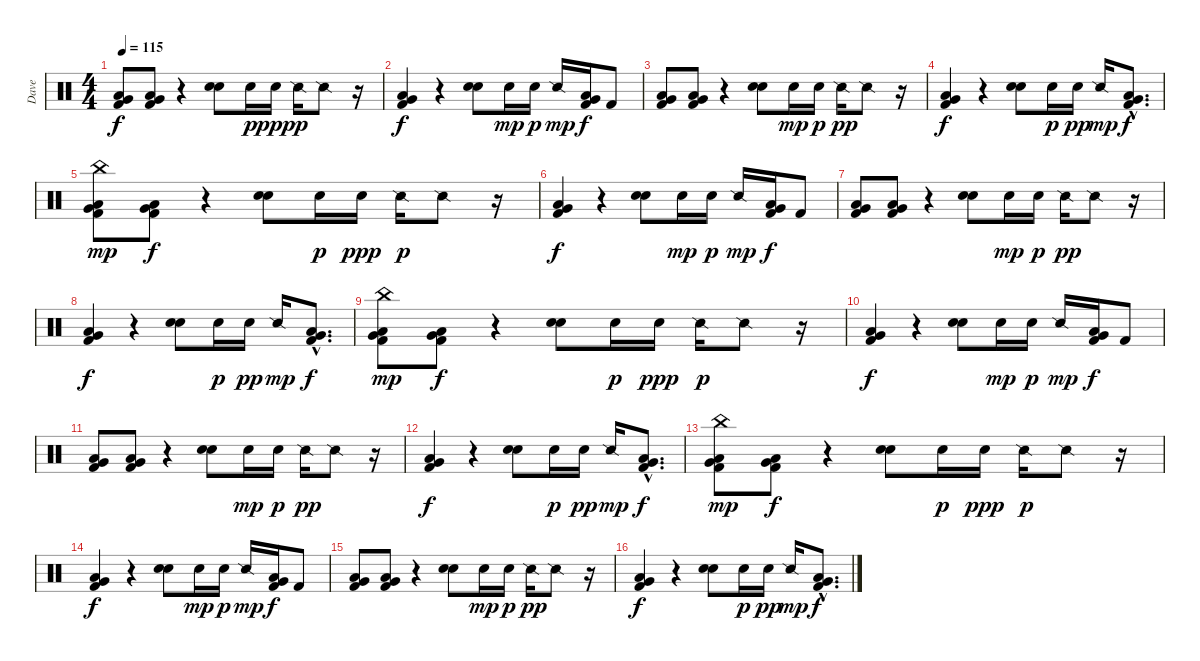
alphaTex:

\track ("Dave" "Dave") {instrument percussion}
\staff {score}
\articulation defaults
\ts (4 4)
\tempo 115
\clef neutral
\ks c
("Very Low Tom (hit)" "Low Floor Tom (hit)" "Kick (hit) 2").8{dy f} ("Very Low Tom (hit)" "Low Floor Tom (hit)" "Kick (hit) 2").8 r.4 ("Hand Clap (hit)" "Electric Snare (hit)").8 "Hand Clap (hit)".16{dy p} "Hand Clap (hit)".16{dy ppp} "Snare (side stick) 2".16{dy p} "Snare (side stick) 2".8 r.16 |
("Very Low Tom (hit)" "Low Floor Tom (hit)" "Kick (hit) 2").4{dy f} r.4 ("Hand Clap (hit)" "Electric Snare (hit)").8 "Hand Clap (hit)".16{dy mp} "Hand Clap (hit)".16{dy p} "Snare (side stick) 2".16{dy mp} ("Very Low Tom (hit)" "Low Floor Tom (hit)" "Kick (hit) 2").16{dy f} "Kick (hit) 2".8 |
("Very Low Tom (hit)" "Low Floor Tom (hit)" "Kick (hit) 2").8 ("Very Low Tom (hit)" "Low Floor Tom (hit)" "Kick (hit) 2").8 r.4 ("Hand Clap (hit)" "Electric Snare (hit)").8 "Hand Clap (hit)".16{dy mp} "Hand Clap (hit)".16{dy p} "Snare (side stick) 2".16{dy pp} "Snare (side stick) 2".8 r.16 |
("Very Low Tom (hit)" "Low Floor Tom (hit)" "Kick (hit) 2").4{dy f} r.4 ("Hand Clap (hit)" "Electric Snare (hit)").8 "Hand Clap (hit)".16{dy p} "Hand Clap (hit)".16{dy pp} "Snare (side stick) 2".16{dy mp} ("Very Low Tom (hit)"{hac} "Low Floor Tom (hit)"{hac} "Kick (hit) 2"{hac}).8{d dy f} |
("China (hit)" "Very Low Tom (hit)" "Low Floor Tom (hit)" "Kick (hit) 2").8{dy mp} ("Very Low Tom (hit)" "Low Floor Tom (hit)" "Kick (hit) 2").8{dy f} r.4 ("Hand Clap (hit)" "Electric Snare (hit)").8 "Hand Clap (hit)".16{dy p} "Hand Clap (hit)".16{dy ppp} "Snare (side stick) 2".16{dy p} "Snare (side stick) 2".8 r.16 |
("Very Low Tom (hit)" "Low Floor Tom (hit)" "Kick (hit) 2").4{dy f} r.4 ("Hand Clap (hit)" "Electric Snare (hit)").8 "Hand Clap (hit)".16{dy mp} "Hand Clap (hit)".16{dy p} "Snare (side stick) 2".16{dy mp} ("Very Low Tom (hit)" "Low Floor Tom (hit)" "Kick (hit) 2").16{dy f} "Kick (hit) 2".8 |
("Very Low Tom (hit)" "Low Floor Tom (hit)" "Kick (hit) 2").8 ("Very Low Tom (hit)" "Low Floor Tom (hit)" "Kick (hit) 2").8 r.4 ("Hand Clap (hit)" "Electric Snare (hit)").8 "Hand Clap (hit)".16{dy mp} "Hand Clap (hit)".16{dy p} "Snare (side stick) 2".16{dy pp} "Snare (side stick) 2".8 r.16 |
("Very Low Tom (hit)" "Low Floor Tom (hit)" "Kick (hit) 2").4{dy f} r.4 ("Hand Clap (hit)" "Electric Snare (hit)").8 "Hand Clap (hit)".16{dy p} "Hand Clap (hit)".16{dy pp} "Snare (side stick) 2".16{dy mp} ("Very Low Tom (hit)"{hac} "Low Floor Tom (hit)"{hac} "Kick (hit) 2"{hac}).8{d dy f} |
("China (hit)" "Very Low Tom (hit)" "Low Floor Tom (hit)" "Kick (hit) 2").8{dy mp} ("Very Low Tom (hit)" "Low Floor Tom (hit)" "Kick (hit) 2").8{dy f} r.4 ("Hand Clap (hit)" "Electric Snare (hit)").8 "Hand Clap (hit)".16{dy p} "Hand Clap (hit)".16{dy ppp} "Snare (side stick) 2".16{dy p} "Snare (side stick) 2".8 r.16 |
("Very Low Tom (hit)" "Low Floor Tom (hit)" "Kick (hit) 2").4{dy f} r.4 ("Hand Clap (hit)" "Electric Snare (hit)").8 "Hand Clap (hit)".16{dy mp} "Hand Clap (hit)".16{dy p} "Snare (side stick) 2".16{dy mp} ("Very Low Tom (hit)" "Low Floor Tom (hit)" "Kick (hit) 2").16{dy f} "Kick (hit) 2".8 |
("Very Low Tom (hit)" "Low Floor Tom (hit)" "Kick (hit) 2").8 ("Very Low Tom (hit)" "Low Floor Tom (hit)" "Kick (hit) 2").8 r.4 ("Hand Clap (hit)" "Electric Snare (hit)").8 "Hand Clap (hit)".16{dy mp} "Hand Clap (hit)".16{dy p} "Snare (side stick) 2".16{dy pp} "Snare (side stick) 2".8 r.16 |
("Very Low Tom (hit)" "Low Floor Tom (hit)" "Kick (hit) 2").4{dy f} r.4 ("Hand Clap (hit)" "Electric Snare (hit)").8 "Hand Clap (hit)".16{dy p} "Hand Clap (hit)".16{dy pp} "Snare (side stick) 2".16{dy mp} ("Very Low Tom (hit)"{hac} "Low Floor Tom (hit)"{hac} "Kick (hit) 2"{hac}).8{d dy f} |
("China (hit)" "Very Low Tom (hit)" "Low Floor Tom (hit)" "Kick (hit) 2").8{dy mp} ("Very Low Tom (hit)" "Low Floor Tom (hit)" "Kick (hit) 2").8{dy f} r.4 ("Hand Clap (hit)" "Electric Snare (hit)").8 "Hand Clap (hit)".16{dy p} "Hand Clap (hit)".16{dy ppp} "Snare (side stick) 2".16{dy p} "Snare (side stick) 2".8 r.16 |
("Very Low Tom (hit)" "Low Floor Tom (hit)" "Kick (hit) 2").4{dy f} r.4 ("Hand Clap (hit)" "Electric Snare (hit)").8 "Hand Clap (hit)".16{dy mp} "Hand Clap (hit)".16{dy p} "Snare (side stick) 2".16{dy mp} ("Very Low Tom (hit)" "Low Floor Tom (hit)" "Kick (hit) 2").16{dy f} "Kick (hit) 2".8 |
("Very Low Tom (hit)" "Low Floor Tom (hit)" "Kick (hit) 2").8 ("Very Low Tom (hit)" "Low Floor Tom (hit)" "Kick (hit) 2").8 r.4 ("Hand Clap (hit)" "Electric Snare (hit)").8 "Hand Clap (hit)".16{dy mp} "Hand Clap (hit)".16{dy p} "Snare (side stick) 2".16{dy pp} "Snare (side stick) 2".8 r.16 |
("Very Low Tom (hit)" "Low Floor Tom (hit)" "Kick (hit) 2").4{dy f} r.4 ("Hand Clap (hit)" "Electric Snare (hit)").8 "Hand Clap (hit)".16{dy p} "Hand Clap (hit)".16{dy pp} "Snare (side stick) 2".16{dy mp} ("Very Low Tom (hit)"{hac} "Low Floor Tom (hit)"{hac} "Kick (hit) 2"{hac}).8{d dy f}
